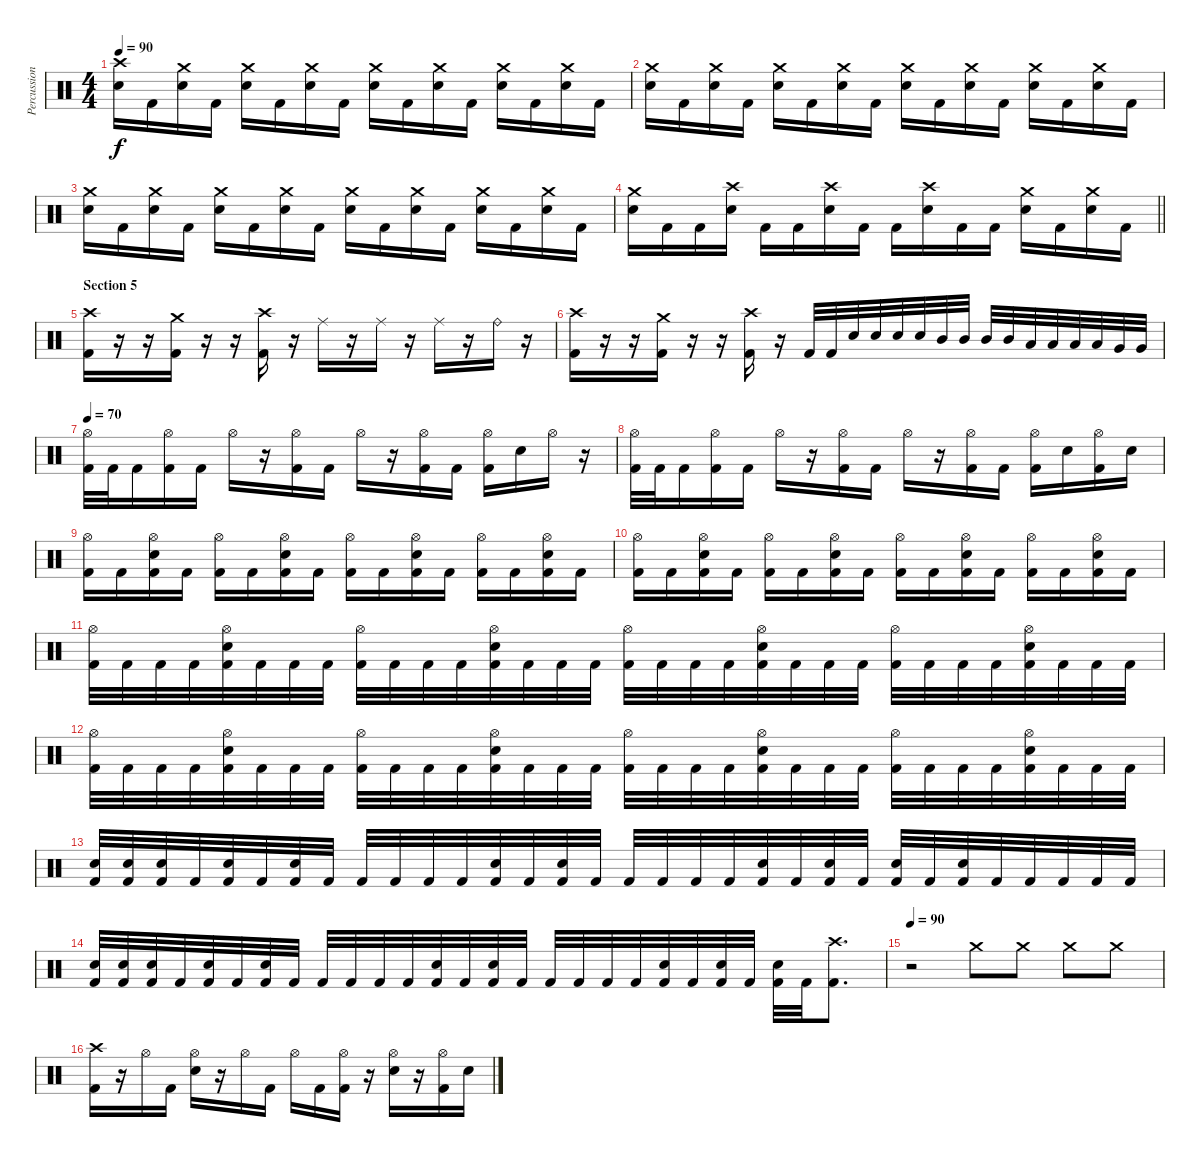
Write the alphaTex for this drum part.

\track ("Percussion" "Percussion") {instrument percussion}
\staff {score}
\articulation defaults
\ts (4 4)
\tempo 90
\clef neutral
\ks c
("Crash high (hit)" "Electric Snare (hit)").16{dy f} "Kick (hit) 2".16 ("Crash medium (hit)" "Electric Snare (hit)").16 "Kick (hit) 2".16 ("Crash medium (hit)" "Electric Snare (hit)").16 "Kick (hit) 2".16 ("Crash medium (hit)" "Electric Snare (hit)").16 "Kick (hit) 2".16 ("Crash medium (hit)" "Electric Snare (hit)").16 "Kick (hit) 2".16 ("Crash medium (hit)" "Electric Snare (hit)").16 "Kick (hit) 2".16 ("Crash medium (hit)" "Electric Snare (hit)").16 "Kick (hit) 2".16 ("Crash medium (hit)" "Electric Snare (hit)").16 "Kick (hit) 2".16 |
("Crash medium (hit)" "Electric Snare (hit)").16 "Kick (hit) 2".16 ("Crash medium (hit)" "Electric Snare (hit)").16 "Kick (hit) 2".16 ("Crash medium (hit)" "Electric Snare (hit)").16 "Kick (hit) 2".16 ("Crash medium (hit)" "Electric Snare (hit)").16 "Kick (hit) 2".16 ("Crash medium (hit)" "Electric Snare (hit)").16 "Kick (hit) 2".16 ("Crash medium (hit)" "Electric Snare (hit)").16 "Kick (hit) 2".16 ("Crash medium (hit)" "Electric Snare (hit)").16 "Kick (hit) 2".16 ("Crash medium (hit)" "Electric Snare (hit)").16 "Kick (hit) 2".16 |
("Crash medium (hit)" "Electric Snare (hit)").16 "Kick (hit) 2".16 ("Crash medium (hit)" "Electric Snare (hit)").16 "Kick (hit) 2".16 ("Crash medium (hit)" "Electric Snare (hit)").16 "Kick (hit) 2".16 ("Crash medium (hit)" "Electric Snare (hit)").16 "Kick (hit) 2".16 ("Crash medium (hit)" "Electric Snare (hit)").16 "Kick (hit) 2".16 ("Crash medium (hit)" "Electric Snare (hit)").16 "Kick (hit) 2".16 ("Crash medium (hit)" "Electric Snare (hit)").16 "Kick (hit) 2".16 ("Crash medium (hit)" "Electric Snare (hit)").16 "Kick (hit) 2".16 |
\barLineRight lightlight
("Crash medium (hit)" "Electric Snare (hit)").16 "Kick (hit) 2".16 "Kick (hit) 2".16 ("Crash high (hit)" "Electric Snare (hit)").16 "Kick (hit) 2".16 "Kick (hit) 2".16 ("Crash high (hit)" "Electric Snare (hit)").16 "Kick (hit) 2".16 "Kick (hit) 2".16 ("Crash high (hit)" "Electric Snare (hit)").16 "Kick (hit) 2".16 "Kick (hit) 2".16 ("Crash medium (hit)" "Electric Snare (hit)").16 "Kick (hit) 2".16 ("Crash medium (hit)" "Electric Snare (hit)").16 "Kick (hit) 2".16 |
\section ("" "Section 5")
("Crash high (hit)" "Kick (hit) 2").16 r.16 r.16 ("Crash medium (hit)" "Kick (hit) 2").16 r.16 r.16 ("Crash high (hit)" "Kick (hit) 2").16 r.16 "Ride (middle)".16 r.16 "Ride (middle)".16 r.16 "Ride (middle)".16 r.16 "Ride (bell)".16 r.16 |
("Crash high (hit)" "Kick (hit) 2").16 r.16 r.16 ("Crash medium (hit)" "Kick (hit) 2").16 r.16 r.16 ("Crash high (hit)" "Kick (hit) 2").16 r.16 "Kick (hit) 2".32 "Kick (hit) 2".32 "Electric Snare (hit)".32 "Electric Snare (hit)".32 "Electric Snare (hit)".32 "Electric Snare (hit)".32 "Mid Tom (hit)".32 "Mid Tom (hit)".32 "Mid Tom (hit)".32 "Mid Tom (hit)".32 "Low Tom (hit)".32 "Low Tom (hit)".32 "Low Tom (hit)".32 "Low Tom (hit)".32 "Very Low Tom (hit)".32 "Very Low Tom (hit)".32 |
\tempo 70
("Hi-Hat (open)" "Kick (hit) 2").32 "Kick (hit) 2".32 "Kick (hit) 2".16 ("Hi-Hat (open)" "Kick (hit) 2").16 "Kick (hit) 2".16 "Hi-Hat (open)".16 r.16 ("Hi-Hat (open)" "Kick (hit) 2").16 "Kick (hit) 2".16 "Hi-Hat (open)".16 r.16 ("Hi-Hat (open)" "Kick (hit) 2").16 "Kick (hit) 2".16 ("Hi-Hat (open)" "Kick (hit) 2").16 "Electric Snare (hit)".16 "Hi-Hat (open)".16 r.16 |
("Hi-Hat (open)" "Kick (hit) 2").32 "Kick (hit) 2".32 "Kick (hit) 2".16 ("Hi-Hat (open)" "Kick (hit) 2").16 "Kick (hit) 2".16 "Hi-Hat (open)".16 r.16 ("Hi-Hat (open)" "Kick (hit) 2").16 "Kick (hit) 2".16 "Hi-Hat (open)".16 r.16 ("Hi-Hat (open)" "Kick (hit) 2").16 "Kick (hit) 2".16 ("Hi-Hat (open)" "Kick (hit) 2").16 "Electric Snare (hit)".16 ("Hi-Hat (open)" "Kick (hit) 2").16 "Electric Snare (hit)".16 |
("Hi-Hat (open)" "Kick (hit) 2").16 "Kick (hit) 2".16 ("Hi-Hat (open)" "Electric Snare (hit)" "Kick (hit) 2").16 "Kick (hit) 2".16 ("Hi-Hat (open)" "Kick (hit) 2").16 "Kick (hit) 2".16 ("Hi-Hat (open)" "Electric Snare (hit)" "Kick (hit) 2").16 "Kick (hit) 2".16 ("Hi-Hat (open)" "Kick (hit) 2").16 "Kick (hit) 2".16 ("Hi-Hat (open)" "Electric Snare (hit)" "Kick (hit) 2").16 "Kick (hit) 2".16 ("Hi-Hat (open)" "Kick (hit) 2").16 "Kick (hit) 2".16 ("Hi-Hat (open)" "Electric Snare (hit)" "Kick (hit) 2").16 "Kick (hit) 2".16 |
("Hi-Hat (open)" "Kick (hit) 2").16 "Kick (hit) 2".16 ("Hi-Hat (open)" "Electric Snare (hit)" "Kick (hit) 2").16 "Kick (hit) 2".16 ("Hi-Hat (open)" "Kick (hit) 2").16 "Kick (hit) 2".16 ("Hi-Hat (open)" "Electric Snare (hit)" "Kick (hit) 2").16 "Kick (hit) 2".16 ("Hi-Hat (open)" "Kick (hit) 2").16 "Kick (hit) 2".16 ("Hi-Hat (open)" "Electric Snare (hit)" "Kick (hit) 2").16 "Kick (hit) 2".16 ("Hi-Hat (open)" "Kick (hit) 2").16 "Kick (hit) 2".16 ("Hi-Hat (open)" "Electric Snare (hit)" "Kick (hit) 2").16 "Kick (hit) 2".16 |
("Hi-Hat (open)" "Kick (hit) 2").32 "Kick (hit) 2".32 "Kick (hit) 2".32 "Kick (hit) 2".32 ("Hi-Hat (open)" "Electric Snare (hit)" "Kick (hit) 2").32 "Kick (hit) 2".32 "Kick (hit) 2".32 "Kick (hit) 2".32 ("Hi-Hat (open)" "Kick (hit) 2").32 "Kick (hit) 2".32 "Kick (hit) 2".32 "Kick (hit) 2".32 ("Hi-Hat (open)" "Electric Snare (hit)" "Kick (hit) 2").32 "Kick (hit) 2".32 "Kick (hit) 2".32 "Kick (hit) 2".32 ("Hi-Hat (open)" "Kick (hit) 2").32 "Kick (hit) 2".32 "Kick (hit) 2".32 "Kick (hit) 2".32 ("Hi-Hat (open)" "Electric Snare (hit)" "Kick (hit) 2").32 "Kick (hit) 2".32 "Kick (hit) 2".32 "Kick (hit) 2".32 ("Hi-Hat (open)" "Kick (hit) 2").32 "Kick (hit) 2".32 "Kick (hit) 2".32 "Kick (hit) 2".32 ("Hi-Hat (open)" "Electric Snare (hit)" "Kick (hit) 2").32 "Kick (hit) 2".32 "Kick (hit) 2".32 "Kick (hit) 2".32 |
("Hi-Hat (open)" "Kick (hit) 2").32 "Kick (hit) 2".32 "Kick (hit) 2".32 "Kick (hit) 2".32 ("Hi-Hat (open)" "Electric Snare (hit)" "Kick (hit) 2").32 "Kick (hit) 2".32 "Kick (hit) 2".32 "Kick (hit) 2".32 ("Hi-Hat (open)" "Kick (hit) 2").32 "Kick (hit) 2".32 "Kick (hit) 2".32 "Kick (hit) 2".32 ("Hi-Hat (open)" "Electric Snare (hit)" "Kick (hit) 2").32 "Kick (hit) 2".32 "Kick (hit) 2".32 "Kick (hit) 2".32 ("Hi-Hat (open)" "Kick (hit) 2").32 "Kick (hit) 2".32 "Kick (hit) 2".32 "Kick (hit) 2".32 ("Hi-Hat (open)" "Electric Snare (hit)" "Kick (hit) 2").32 "Kick (hit) 2".32 "Kick (hit) 2".32 "Kick (hit) 2".32 ("Hi-Hat (open)" "Kick (hit) 2").32 "Kick (hit) 2".32 "Kick (hit) 2".32 "Kick (hit) 2".32 ("Hi-Hat (open)" "Electric Snare (hit)" "Kick (hit) 2").32 "Kick (hit) 2".32 "Kick (hit) 2".32 "Kick (hit) 2".32 |
("Electric Snare (hit)" "Kick (hit) 2").32 ("Electric Snare (hit)" "Kick (hit) 2").32 ("Electric Snare (hit)" "Kick (hit) 2").32 "Kick (hit) 2".32 ("Electric Snare (hit)" "Kick (hit) 2").32 "Kick (hit) 2".32 ("Electric Snare (hit)" "Kick (hit) 2").32 "Kick (hit) 2".32 "Kick (hit) 2".32 "Kick (hit) 2".32 "Kick (hit) 2".32 "Kick (hit) 2".32 ("Electric Snare (hit)" "Kick (hit) 2").32 "Kick (hit) 2".32 ("Electric Snare (hit)" "Kick (hit) 2").32 "Kick (hit) 2".32 "Kick (hit) 2".32 "Kick (hit) 2".32 "Kick (hit) 2".32 "Kick (hit) 2".32 ("Electric Snare (hit)" "Kick (hit) 2").32 "Kick (hit) 2".32 ("Electric Snare (hit)" "Kick (hit) 2").32 "Kick (hit) 2".32 ("Electric Snare (hit)" "Kick (hit) 2").32 "Kick (hit) 2".32 ("Electric Snare (hit)" "Kick (hit) 2").32 "Kick (hit) 2".32 "Kick (hit) 2".32 "Kick (hit) 2".32 "Kick (hit) 2".32 "Kick (hit) 2".32 |
("Electric Snare (hit)" "Kick (hit) 2").32 ("Electric Snare (hit)" "Kick (hit) 2").32 ("Electric Snare (hit)" "Kick (hit) 2").32 "Kick (hit) 2".32 ("Electric Snare (hit)" "Kick (hit) 2").32 "Kick (hit) 2".32 ("Electric Snare (hit)" "Kick (hit) 2").32 "Kick (hit) 2".32 "Kick (hit) 2".32 "Kick (hit) 2".32 "Kick (hit) 2".32 "Kick (hit) 2".32 ("Electric Snare (hit)" "Kick (hit) 2").32 "Kick (hit) 2".32 ("Electric Snare (hit)" "Kick (hit) 2").32 "Kick (hit) 2".32 "Kick (hit) 2".32 "Kick (hit) 2".32 "Kick (hit) 2".32 "Kick (hit) 2".32 ("Electric Snare (hit)" "Kick (hit) 2").32 "Kick (hit) 2".32 ("Electric Snare (hit)" "Kick (hit) 2").32 "Kick (hit) 2".32 ("Electric Snare (hit)" "Kick (hit) 2").32 "Kick (hit) 2".32 ("Crash high (hit)" "Kick (hit) 2").8{d} |
\tempo 90
r.2 "Crash medium (hit)".8 "Crash medium (hit)".8 "Crash medium (hit)".8 "Crash medium (hit)".8 |
("Crash high (hit)" "Kick (hit) 2").16 r.16 "Hi-Hat (open)".16 "Kick (hit) 2".16 ("Hi-Hat (open)" "Electric Snare (hit)").16 r.16 "Hi-Hat (open)".16 "Kick (hit) 2".16 "Hi-Hat (open)".16 "Kick (hit) 2".16 ("Hi-Hat (open)" "Kick (hit) 2").16 r.16 ("Hi-Hat (open)" "Electric Snare (hit)").16 r.16 ("Hi-Hat (open)" "Kick (hit) 2").16 "Electric Snare (hit)".16
